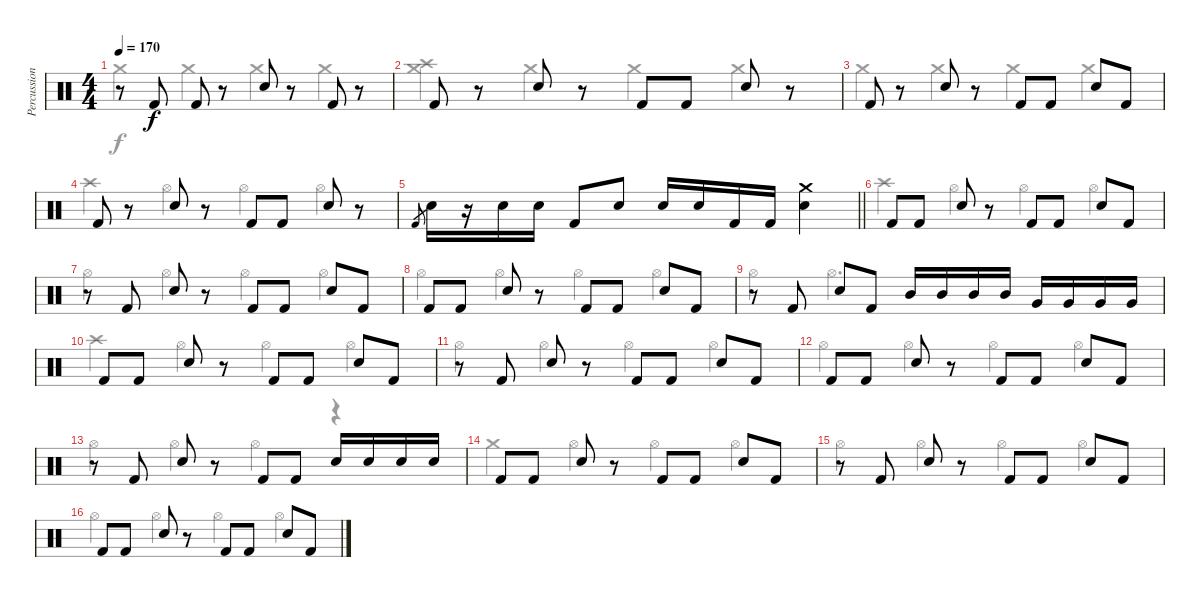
\track ("Percussion" "Percussion") {instrument percussion}
\staff {score}
\articulation defaults
\voice
\ts (4 4)
\tempo 170
\clef neutral
\ks c
r.8{dy f} "Kick (hit) 2".8 "Kick (hit) 2".8 r.8 "Snare (hit) 2".8 r.8 "Kick (hit) 2".8 r.8 |
"Kick (hit) 2".8 r.8 "Snare (hit) 2".8 r.8 "Kick (hit) 2".8 "Kick (hit) 2".8 "Snare (hit) 2".8 r.8 |
"Kick (hit) 2".8 r.8 "Snare (hit) 2".8 r.8 "Kick (hit) 2".8 "Kick (hit) 2".8 "Snare (hit) 2".8 "Kick (hit) 2".8 |
"Kick (hit) 2".8 r.8 "Snare (hit) 2".8 r.8 "Kick (hit) 2".8 "Kick (hit) 2".8 "Snare (hit) 2".8 r.8 |
\barLineRight lightlight "Kick (hit) 2".8{gr} "Snare (hit) 2".16
r.16 "Snare (hit) 2".16 "Snare (hit) 2".16 "Kick (hit) 2".8 "Snare (hit) 2".8 "Snare (hit) 2".16 "Snare (hit) 2".16 "Kick (hit) 2".16 "Kick (hit) 2".16 ("Crash medium (hit)" "Snare (hit) 2").4 |
"Kick (hit) 2".8 "Kick (hit) 2".8 "Snare (hit) 2".8 r.8 "Kick (hit) 2".8 "Kick (hit) 2".8 "Snare (hit) 2".8 "Kick (hit) 2".8 |
r.8 "Kick (hit) 2".8 "Snare (hit) 2".8 r.8 "Kick (hit) 2".8 "Kick (hit) 2".8 "Snare (hit) 2".8 "Kick (hit) 2".8 |
"Kick (hit) 2".8 "Kick (hit) 2".8 "Snare (hit) 2".8 r.8 "Kick (hit) 2".8 "Kick (hit) 2".8 "Snare (hit) 2".8 "Kick (hit) 2".8 |
r.8 "Kick (hit) 2".8 "Snare (hit) 2".8 "Kick (hit) 2".8 "Mid Tom (hit)".16 "Mid Tom (hit)".16 "Mid Tom (hit)".16 "Mid Tom (hit)".16 "Very Low Tom (hit)".16 "Very Low Tom (hit)".16 "Very Low Tom (hit)".16 "Very Low Tom (hit)".16 |
"Kick (hit) 2".8 "Kick (hit) 2".8 "Snare (hit) 2".8 r.8 "Kick (hit) 2".8 "Kick (hit) 2".8 "Snare (hit) 2".8 "Kick (hit) 2".8 |
r.8 "Kick (hit) 2".8 "Snare (hit) 2".8 r.8 "Kick (hit) 2".8 "Kick (hit) 2".8 "Snare (hit) 2".8 "Kick (hit) 2".8 |
"Kick (hit) 2".8 "Kick (hit) 2".8 "Snare (hit) 2".8 r.8 "Kick (hit) 2".8 "Kick (hit) 2".8 "Snare (hit) 2".8 "Kick (hit) 2".8 |
r.8 "Kick (hit) 2".8 "Snare (hit) 2".8 r.8 "Kick (hit) 2".8 "Kick (hit) 2".8 "Snare (hit) 2".16 "Snare (hit) 2".16 "Snare (hit) 2".16 "Snare (hit) 2".16 |
"Kick (hit) 2".8 "Kick (hit) 2".8 "Snare (hit) 2".8 r.8 "Kick (hit) 2".8 "Kick (hit) 2".8 "Snare (hit) 2".8 "Kick (hit) 2".8 |
r.8 "Kick (hit) 2".8 "Snare (hit) 2".8 r.8 "Kick (hit) 2".8 "Kick (hit) 2".8 "Snare (hit) 2".8 "Kick (hit) 2".8 |
"Kick (hit) 2".8 "Kick (hit) 2".8 "Snare (hit) 2".8 r.8 "Kick (hit) 2".8 "Kick (hit) 2".8 "Snare (hit) 2".8 "Kick (hit) 2".8
\voice
\clef neutral
\ottava regular
\simile none
\ks c "Crash medium (hit)".4{dy f} "Crash medium (hit)".4 "Crash medium (hit)".4 "Crash medium (hit)".4
|
("Crash medium (hit)" "Crash high (hit)").4 "Crash medium (hit)".4 "Crash medium (hit)".4 "Crash medium (hit)".4 |
"Crash medium (hit)".4 "Crash medium (hit)".4 "Crash medium (hit)".4 "Crash medium (hit)".4 |
"Crash high (hit)".4 "Hi-Hat (open)".4 "Hi-Hat (open)".4 "Hi-Hat (open)".4 |
\barLineRight lightlight
|
"Crash high (hit)".4 "Hi-Hat (open)".4 "Hi-Hat (open)".4 "Hi-Hat (open)".4 |
"Hi-Hat (open)".4 "Hi-Hat (open)".4 "Hi-Hat (open)".4 "Hi-Hat (open)".4 |
"Hi-Hat (open)".4 "Hi-Hat (open)".4 "Hi-Hat (open)".4 "Hi-Hat (open)".4 |
"Hi-Hat (open)".4 "Hi-Hat (open)".2{d} |
"Crash high (hit)".4 "Hi-Hat (open)".4 "Hi-Hat (open)".4 "Hi-Hat (open)".4 |
"Hi-Hat (open)".4 "Hi-Hat (open)".4 "Hi-Hat (open)".4 "Hi-Hat (open)".4 |
"Hi-Hat (open)".4 "Hi-Hat (open)".4 "Hi-Hat (open)".4 "Hi-Hat (open)".4 |
"Hi-Hat (open)".4 "Hi-Hat (open)".4 "Hi-Hat (open)".4 r.4 |
"Crash medium (hit)".4 "Hi-Hat (open)".4 "Hi-Hat (open)".4 "Hi-Hat (open)".4 |
"Hi-Hat (open)".4 "Hi-Hat (open)".4 "Hi-Hat (open)".4 "Hi-Hat (open)".4 |
"Hi-Hat (open)".4 "Hi-Hat (open)".4 "Hi-Hat (open)".4 "Hi-Hat (open)".4
